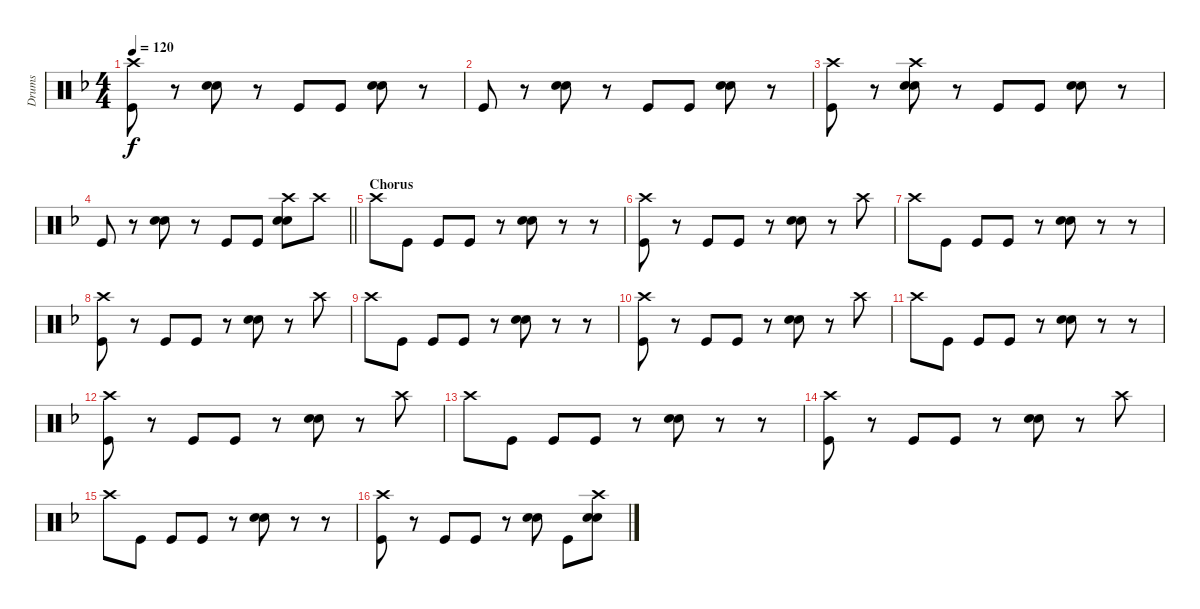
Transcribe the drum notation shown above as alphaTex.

\track ("Drums" "Drums") {instrument percussion}
\staff {score}
\articulation defaults
\ts (4 4)
\tempo 120
\clef neutral
\ks f
("Crash high (hit)" "Kick (hit)").8{dy f} r.8 ("Electric Snare (hit)" "Snare (hit) 2").8 r.8 "Kick (hit)".8 "Kick (hit)".8 ("Electric Snare (hit)" "Snare (hit) 2").8 r.8 |
"Kick (hit)".8 r.8 ("Electric Snare (hit)" "Snare (hit) 2").8 r.8 "Kick (hit)".8 "Kick (hit)".8 ("Electric Snare (hit)" "Snare (hit) 2").8 r.8 |
("Crash high (hit)" "Kick (hit)").8 r.8 ("Crash high (hit)" "Electric Snare (hit)" "Snare (hit) 2").8 r.8 "Kick (hit)".8 "Kick (hit)".8 ("Electric Snare (hit)" "Snare (hit) 2").8 r.8 |
\barLineRight lightlight "Kick (hit)".8
r.8 ("Electric Snare (hit)" "Snare (hit) 2").8 r.8 "Kick (hit)".8 "Kick (hit)".8 ("Crash high (hit)" "Electric Snare (hit)" "Snare (hit) 2").8 "Crash high (hit)".8 |
\section ("" "Chorus")
"Crash high (hit)".8{volume 16} "Kick (hit)".8 "Kick (hit)".8 "Kick (hit)".8 r.8 ("Electric Snare (hit)" "Snare (hit) 2").8 r.8 r.8 |
("Crash high (hit)" "Kick (hit)").8 r.8 "Kick (hit)".8 "Kick (hit)".8 r.8 ("Electric Snare (hit)" "Snare (hit) 2").8 r.8 "Crash high (hit)".8 |
"Crash high (hit)".8 "Kick (hit)".8 "Kick (hit)".8 "Kick (hit)".8 r.8 ("Electric Snare (hit)" "Snare (hit) 2").8 r.8 r.8 |
("Crash high (hit)" "Kick (hit)").8 r.8 "Kick (hit)".8 "Kick (hit)".8 r.8 ("Electric Snare (hit)" "Snare (hit) 2").8 r.8 "Crash high (hit)".8 |
"Crash high (hit)".8 "Kick (hit)".8 "Kick (hit)".8 "Kick (hit)".8 r.8 ("Electric Snare (hit)" "Snare (hit) 2").8 r.8 r.8 |
("Crash high (hit)" "Kick (hit)").8 r.8 "Kick (hit)".8 "Kick (hit)".8 r.8 ("Electric Snare (hit)" "Snare (hit) 2").8 r.8 "Crash high (hit)".8 |
"Crash high (hit)".8 "Kick (hit)".8 "Kick (hit)".8 "Kick (hit)".8 r.8 ("Electric Snare (hit)" "Snare (hit) 2").8 r.8 r.8 |
("Crash high (hit)" "Kick (hit)").8 r.8 "Kick (hit)".8 "Kick (hit)".8 r.8 ("Electric Snare (hit)" "Snare (hit) 2").8 r.8 "Crash high (hit)".8 |
"Crash high (hit)".8 "Kick (hit)".8 "Kick (hit)".8 "Kick (hit)".8 r.8 ("Electric Snare (hit)" "Snare (hit) 2").8 r.8 r.8 |
("Crash high (hit)" "Kick (hit)").8 r.8 "Kick (hit)".8 "Kick (hit)".8 r.8 ("Electric Snare (hit)" "Snare (hit) 2").8 r.8 "Crash high (hit)".8 |
"Crash high (hit)".8 "Kick (hit)".8 "Kick (hit)".8 "Kick (hit)".8 r.8 ("Electric Snare (hit)" "Snare (hit) 2").8 r.8 r.8 |
("Crash high (hit)" "Kick (hit)").8 r.8 "Kick (hit)".8 "Kick (hit)".8 r.8 ("Electric Snare (hit)" "Snare (hit) 2").8 "Kick (hit)".8 ("Crash high (hit)" "Electric Snare (hit)" "Snare (hit) 2").8
